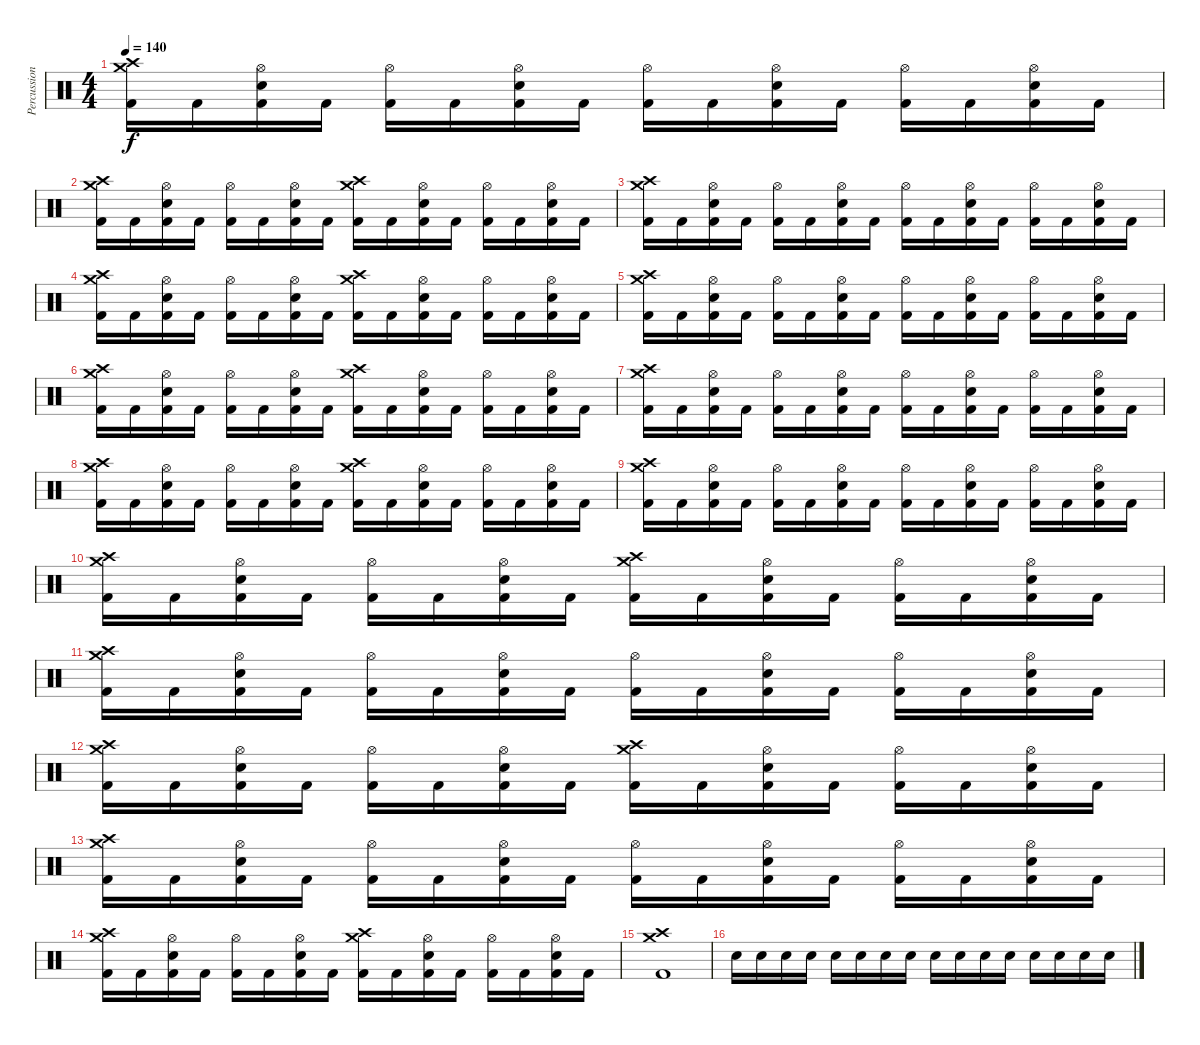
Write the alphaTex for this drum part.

\track ("Percussion" "Percussion") {instrument percussion}
\staff {score}
\articulation defaults
\ts (4 4)
\tempo 140
\clef neutral
\ks c
("Kick (hit) 2" "Crash high (hit)" "Crash medium (hit)").16{dy f} "Kick (hit) 2".16 ("Kick (hit) 2" "Electric Snare (hit)" "Hi-Hat (open)").16 "Kick (hit) 2".16 ("Kick (hit) 2" "Hi-Hat (open)").16 "Kick (hit) 2".16 ("Kick (hit) 2" "Electric Snare (hit)" "Hi-Hat (open)").16 "Kick (hit) 2".16 ("Kick (hit) 2" "Hi-Hat (open)").16 "Kick (hit) 2".16 ("Kick (hit) 2" "Electric Snare (hit)" "Hi-Hat (open)").16 "Kick (hit) 2".16 ("Kick (hit) 2" "Hi-Hat (open)").16 "Kick (hit) 2".16 ("Kick (hit) 2" "Electric Snare (hit)" "Hi-Hat (open)").16 "Kick (hit) 2".16 |
("Kick (hit) 2" "Crash high (hit)" "Crash medium (hit)").16 "Kick (hit) 2".16 ("Kick (hit) 2" "Electric Snare (hit)" "Hi-Hat (open)").16 "Kick (hit) 2".16 ("Kick (hit) 2" "Hi-Hat (open)").16 "Kick (hit) 2".16 ("Kick (hit) 2" "Electric Snare (hit)" "Hi-Hat (open)").16 "Kick (hit) 2".16 ("Kick (hit) 2" "Crash high (hit)" "Crash medium (hit)").16 "Kick (hit) 2".16 ("Kick (hit) 2" "Electric Snare (hit)" "Hi-Hat (open)").16 "Kick (hit) 2".16 ("Kick (hit) 2" "Hi-Hat (open)").16 "Kick (hit) 2".16 ("Kick (hit) 2" "Electric Snare (hit)" "Hi-Hat (open)").16 "Kick (hit) 2".16 |
("Kick (hit) 2" "Crash high (hit)" "Crash medium (hit)").16 "Kick (hit) 2".16 ("Kick (hit) 2" "Electric Snare (hit)" "Hi-Hat (open)").16 "Kick (hit) 2".16 ("Kick (hit) 2" "Hi-Hat (open)").16 "Kick (hit) 2".16 ("Kick (hit) 2" "Electric Snare (hit)" "Hi-Hat (open)").16 "Kick (hit) 2".16 ("Kick (hit) 2" "Hi-Hat (open)").16 "Kick (hit) 2".16 ("Kick (hit) 2" "Electric Snare (hit)" "Hi-Hat (open)").16 "Kick (hit) 2".16 ("Kick (hit) 2" "Hi-Hat (open)").16 "Kick (hit) 2".16 ("Kick (hit) 2" "Electric Snare (hit)" "Hi-Hat (open)").16 "Kick (hit) 2".16 |
("Kick (hit) 2" "Crash high (hit)" "Crash medium (hit)").16 "Kick (hit) 2".16 ("Kick (hit) 2" "Electric Snare (hit)" "Hi-Hat (open)").16 "Kick (hit) 2".16 ("Kick (hit) 2" "Hi-Hat (open)").16 "Kick (hit) 2".16 ("Kick (hit) 2" "Electric Snare (hit)" "Hi-Hat (open)").16 "Kick (hit) 2".16 ("Kick (hit) 2" "Crash high (hit)" "Crash medium (hit)").16 "Kick (hit) 2".16 ("Kick (hit) 2" "Electric Snare (hit)" "Hi-Hat (open)").16 "Kick (hit) 2".16 ("Kick (hit) 2" "Hi-Hat (open)").16 "Kick (hit) 2".16 ("Kick (hit) 2" "Electric Snare (hit)" "Hi-Hat (open)").16 "Kick (hit) 2".16 |
("Kick (hit) 2" "Crash high (hit)" "Crash medium (hit)").16 "Kick (hit) 2".16 ("Kick (hit) 2" "Electric Snare (hit)" "Hi-Hat (open)").16 "Kick (hit) 2".16 ("Kick (hit) 2" "Hi-Hat (open)").16 "Kick (hit) 2".16 ("Kick (hit) 2" "Electric Snare (hit)" "Hi-Hat (open)").16 "Kick (hit) 2".16 ("Kick (hit) 2" "Hi-Hat (open)").16 "Kick (hit) 2".16 ("Kick (hit) 2" "Electric Snare (hit)" "Hi-Hat (open)").16 "Kick (hit) 2".16 ("Kick (hit) 2" "Hi-Hat (open)").16 "Kick (hit) 2".16 ("Kick (hit) 2" "Electric Snare (hit)" "Hi-Hat (open)").16 "Kick (hit) 2".16 |
("Kick (hit) 2" "Crash high (hit)" "Crash medium (hit)").16 "Kick (hit) 2".16 ("Kick (hit) 2" "Electric Snare (hit)" "Hi-Hat (open)").16 "Kick (hit) 2".16 ("Kick (hit) 2" "Hi-Hat (open)").16 "Kick (hit) 2".16 ("Kick (hit) 2" "Electric Snare (hit)" "Hi-Hat (open)").16 "Kick (hit) 2".16 ("Kick (hit) 2" "Crash high (hit)" "Crash medium (hit)").16 "Kick (hit) 2".16 ("Kick (hit) 2" "Electric Snare (hit)" "Hi-Hat (open)").16 "Kick (hit) 2".16 ("Kick (hit) 2" "Hi-Hat (open)").16 "Kick (hit) 2".16 ("Kick (hit) 2" "Electric Snare (hit)" "Hi-Hat (open)").16 "Kick (hit) 2".16 |
("Kick (hit) 2" "Crash high (hit)" "Crash medium (hit)").16 "Kick (hit) 2".16 ("Kick (hit) 2" "Electric Snare (hit)" "Hi-Hat (open)").16 "Kick (hit) 2".16 ("Kick (hit) 2" "Hi-Hat (open)").16 "Kick (hit) 2".16 ("Kick (hit) 2" "Electric Snare (hit)" "Hi-Hat (open)").16 "Kick (hit) 2".16 ("Kick (hit) 2" "Hi-Hat (open)").16 "Kick (hit) 2".16 ("Kick (hit) 2" "Electric Snare (hit)" "Hi-Hat (open)").16 "Kick (hit) 2".16 ("Kick (hit) 2" "Hi-Hat (open)").16 "Kick (hit) 2".16 ("Kick (hit) 2" "Electric Snare (hit)" "Hi-Hat (open)").16 "Kick (hit) 2".16 |
("Kick (hit) 2" "Crash high (hit)" "Crash medium (hit)").16 "Kick (hit) 2".16 ("Kick (hit) 2" "Electric Snare (hit)" "Hi-Hat (open)").16 "Kick (hit) 2".16 ("Kick (hit) 2" "Hi-Hat (open)").16 "Kick (hit) 2".16 ("Kick (hit) 2" "Electric Snare (hit)" "Hi-Hat (open)").16 "Kick (hit) 2".16 ("Kick (hit) 2" "Crash high (hit)" "Crash medium (hit)").16 "Kick (hit) 2".16 ("Kick (hit) 2" "Electric Snare (hit)" "Hi-Hat (open)").16 "Kick (hit) 2".16 ("Kick (hit) 2" "Hi-Hat (open)").16 "Kick (hit) 2".16 ("Kick (hit) 2" "Electric Snare (hit)" "Hi-Hat (open)").16 "Kick (hit) 2".16 |
("Kick (hit) 2" "Crash high (hit)" "Crash medium (hit)").16 "Kick (hit) 2".16 ("Kick (hit) 2" "Electric Snare (hit)" "Hi-Hat (open)").16 "Kick (hit) 2".16 ("Kick (hit) 2" "Hi-Hat (open)").16 "Kick (hit) 2".16 ("Kick (hit) 2" "Electric Snare (hit)" "Hi-Hat (open)").16 "Kick (hit) 2".16 ("Kick (hit) 2" "Hi-Hat (open)").16 "Kick (hit) 2".16 ("Kick (hit) 2" "Electric Snare (hit)" "Hi-Hat (open)").16 "Kick (hit) 2".16 ("Kick (hit) 2" "Hi-Hat (open)").16 "Kick (hit) 2".16 ("Kick (hit) 2" "Electric Snare (hit)" "Hi-Hat (open)").16 "Kick (hit) 2".16 |
("Kick (hit) 2" "Crash high (hit)" "Crash medium (hit)").16 "Kick (hit) 2".16 ("Kick (hit) 2" "Electric Snare (hit)" "Hi-Hat (open)").16 "Kick (hit) 2".16 ("Kick (hit) 2" "Hi-Hat (open)").16 "Kick (hit) 2".16 ("Kick (hit) 2" "Electric Snare (hit)" "Hi-Hat (open)").16 "Kick (hit) 2".16 ("Kick (hit) 2" "Crash high (hit)" "Crash medium (hit)").16 "Kick (hit) 2".16 ("Kick (hit) 2" "Electric Snare (hit)" "Hi-Hat (open)").16 "Kick (hit) 2".16 ("Kick (hit) 2" "Hi-Hat (open)").16 "Kick (hit) 2".16 ("Kick (hit) 2" "Electric Snare (hit)" "Hi-Hat (open)").16 "Kick (hit) 2".16 |
("Kick (hit) 2" "Crash high (hit)" "Crash medium (hit)").16 "Kick (hit) 2".16 ("Kick (hit) 2" "Electric Snare (hit)" "Hi-Hat (open)").16 "Kick (hit) 2".16 ("Kick (hit) 2" "Hi-Hat (open)").16 "Kick (hit) 2".16 ("Kick (hit) 2" "Electric Snare (hit)" "Hi-Hat (open)").16 "Kick (hit) 2".16 ("Kick (hit) 2" "Hi-Hat (open)").16 "Kick (hit) 2".16 ("Kick (hit) 2" "Electric Snare (hit)" "Hi-Hat (open)").16 "Kick (hit) 2".16 ("Kick (hit) 2" "Hi-Hat (open)").16 "Kick (hit) 2".16 ("Kick (hit) 2" "Electric Snare (hit)" "Hi-Hat (open)").16 "Kick (hit) 2".16 |
("Kick (hit) 2" "Crash high (hit)" "Crash medium (hit)").16 "Kick (hit) 2".16 ("Kick (hit) 2" "Electric Snare (hit)" "Hi-Hat (open)").16 "Kick (hit) 2".16 ("Kick (hit) 2" "Hi-Hat (open)").16 "Kick (hit) 2".16 ("Kick (hit) 2" "Electric Snare (hit)" "Hi-Hat (open)").16 "Kick (hit) 2".16 ("Kick (hit) 2" "Crash high (hit)" "Crash medium (hit)").16 "Kick (hit) 2".16 ("Kick (hit) 2" "Electric Snare (hit)" "Hi-Hat (open)").16 "Kick (hit) 2".16 ("Kick (hit) 2" "Hi-Hat (open)").16 "Kick (hit) 2".16 ("Kick (hit) 2" "Electric Snare (hit)" "Hi-Hat (open)").16 "Kick (hit) 2".16 |
("Kick (hit) 2" "Crash high (hit)" "Crash medium (hit)").16 "Kick (hit) 2".16 ("Kick (hit) 2" "Electric Snare (hit)" "Hi-Hat (open)").16 "Kick (hit) 2".16 ("Kick (hit) 2" "Hi-Hat (open)").16 "Kick (hit) 2".16 ("Kick (hit) 2" "Electric Snare (hit)" "Hi-Hat (open)").16 "Kick (hit) 2".16 ("Kick (hit) 2" "Hi-Hat (open)").16 "Kick (hit) 2".16 ("Kick (hit) 2" "Electric Snare (hit)" "Hi-Hat (open)").16 "Kick (hit) 2".16 ("Kick (hit) 2" "Hi-Hat (open)").16 "Kick (hit) 2".16 ("Kick (hit) 2" "Electric Snare (hit)" "Hi-Hat (open)").16 "Kick (hit) 2".16 |
("Kick (hit) 2" "Crash high (hit)" "Crash medium (hit)").16 "Kick (hit) 2".16 ("Kick (hit) 2" "Electric Snare (hit)" "Hi-Hat (open)").16 "Kick (hit) 2".16 ("Kick (hit) 2" "Hi-Hat (open)").16 "Kick (hit) 2".16 ("Kick (hit) 2" "Electric Snare (hit)" "Hi-Hat (open)").16 "Kick (hit) 2".16 ("Kick (hit) 2" "Crash high (hit)" "Crash medium (hit)").16 "Kick (hit) 2".16 ("Kick (hit) 2" "Electric Snare (hit)" "Hi-Hat (open)").16 "Kick (hit) 2".16 ("Kick (hit) 2" "Hi-Hat (open)").16 "Kick (hit) 2".16 ("Kick (hit) 2" "Electric Snare (hit)" "Hi-Hat (open)").16 "Kick (hit) 2".16 |
("Kick (hit) 2" "Crash high (hit)" "Crash medium (hit)").1 |
"Electric Snare (hit)".16 "Electric Snare (hit)".16 "Electric Snare (hit)".16 "Electric Snare (hit)".16 "Electric Snare (hit)".16 "Electric Snare (hit)".16 "Electric Snare (hit)".16 "Electric Snare (hit)".16 "Electric Snare (hit)".16 "Electric Snare (hit)".16 "Electric Snare (hit)".16 "Electric Snare (hit)".16 "Electric Snare (hit)".16 "Electric Snare (hit)".16 "Electric Snare (hit)".16 "Electric Snare (hit)".16
